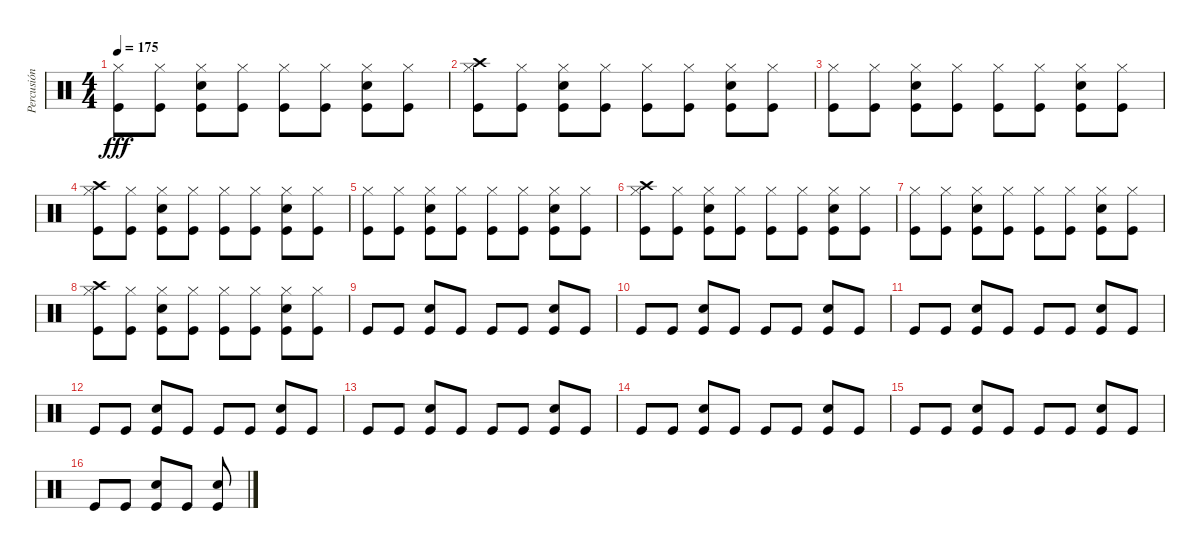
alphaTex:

\track ("Percusión" "Percusión") {instrument percussion}
\staff {score}
\articulation defaults
\ts (4 4)
\tempo 175
\clef neutral
\ks c
("Kick (hit)" "Hi-Hat (closed)").8{dy fff} ("Kick (hit)" "Hi-Hat (closed)").8 ("Snare (hit) 2" "Kick (hit)" "Hi-Hat (closed)").8 ("Kick (hit)" "Hi-Hat (closed)").8 ("Kick (hit)" "Hi-Hat (closed)").8 ("Kick (hit)" "Hi-Hat (closed)").8 ("Snare (hit) 2" "Kick (hit)" "Hi-Hat (closed)").8 ("Kick (hit)" "Hi-Hat (closed)").8 |
("Kick (hit)" "Crash high (hit)" "Hi-Hat (closed)").8 ("Kick (hit)" "Hi-Hat (closed)").8 ("Kick (hit)" "Snare (hit) 2" "Hi-Hat (closed)").8 ("Hi-Hat (closed)" "Kick (hit)").8 ("Kick (hit)" "Hi-Hat (closed)").8 ("Kick (hit)" "Hi-Hat (closed)").8 ("Snare (hit) 2" "Kick (hit)" "Hi-Hat (closed)").8 ("Kick (hit)" "Hi-Hat (closed)").8 |
("Kick (hit)" "Hi-Hat (closed)").8 ("Kick (hit)" "Hi-Hat (closed)").8 ("Snare (hit) 2" "Kick (hit)" "Hi-Hat (closed)").8 ("Kick (hit)" "Hi-Hat (closed)").8 ("Kick (hit)" "Hi-Hat (closed)").8 ("Kick (hit)" "Hi-Hat (closed)").8 ("Snare (hit) 2" "Kick (hit)" "Hi-Hat (closed)").8 ("Kick (hit)" "Hi-Hat (closed)").8 |
("Kick (hit)" "Crash high (hit)" "Hi-Hat (closed)").8 ("Kick (hit)" "Hi-Hat (closed)").8 ("Kick (hit)" "Snare (hit) 2" "Hi-Hat (closed)").8 ("Hi-Hat (closed)" "Kick (hit)").8 ("Kick (hit)" "Hi-Hat (closed)").8 ("Kick (hit)" "Hi-Hat (closed)").8 ("Snare (hit) 2" "Kick (hit)" "Hi-Hat (closed)").8 ("Kick (hit)" "Hi-Hat (closed)").8 |
("Kick (hit)" "Hi-Hat (closed)").8 ("Kick (hit)" "Hi-Hat (closed)").8 ("Snare (hit) 2" "Kick (hit)" "Hi-Hat (closed)").8 ("Kick (hit)" "Hi-Hat (closed)").8 ("Kick (hit)" "Hi-Hat (closed)").8 ("Kick (hit)" "Hi-Hat (closed)").8 ("Snare (hit) 2" "Kick (hit)" "Hi-Hat (closed)").8 ("Kick (hit)" "Hi-Hat (closed)").8 |
("Kick (hit)" "Crash high (hit)" "Hi-Hat (closed)").8 ("Kick (hit)" "Hi-Hat (closed)").8 ("Kick (hit)" "Snare (hit) 2" "Hi-Hat (closed)").8 ("Hi-Hat (closed)" "Kick (hit)").8 ("Kick (hit)" "Hi-Hat (closed)").8 ("Kick (hit)" "Hi-Hat (closed)").8 ("Snare (hit) 2" "Kick (hit)" "Hi-Hat (closed)").8 ("Kick (hit)" "Hi-Hat (closed)").8 |
("Kick (hit)" "Hi-Hat (closed)").8 ("Kick (hit)" "Hi-Hat (closed)").8 ("Snare (hit) 2" "Kick (hit)" "Hi-Hat (closed)").8 ("Kick (hit)" "Hi-Hat (closed)").8 ("Kick (hit)" "Hi-Hat (closed)").8 ("Kick (hit)" "Hi-Hat (closed)").8 ("Snare (hit) 2" "Kick (hit)" "Hi-Hat (closed)").8 ("Kick (hit)" "Hi-Hat (closed)").8 |
("Kick (hit)" "Crash high (hit)" "Hi-Hat (closed)").8 ("Kick (hit)" "Hi-Hat (closed)").8 ("Kick (hit)" "Snare (hit) 2" "Hi-Hat (closed)").8 ("Hi-Hat (closed)" "Kick (hit)").8 ("Kick (hit)" "Hi-Hat (closed)").8 ("Kick (hit)" "Hi-Hat (closed)").8 ("Snare (hit) 2" "Kick (hit)" "Hi-Hat (closed)").8 ("Kick (hit)" "Hi-Hat (closed)").8 |
"Kick (hit)".8 "Kick (hit)".8 ("Snare (hit) 2" "Kick (hit)").8 "Kick (hit)".8 "Kick (hit)".8 "Kick (hit)".8 ("Snare (hit) 2" "Kick (hit)").8 "Kick (hit)".8 |
"Kick (hit)".8 "Kick (hit)".8 ("Snare (hit) 2" "Kick (hit)").8 "Kick (hit)".8 "Kick (hit)".8 "Kick (hit)".8 ("Snare (hit) 2" "Kick (hit)").8 "Kick (hit)".8 |
"Kick (hit)".8 "Kick (hit)".8 ("Snare (hit) 2" "Kick (hit)").8 "Kick (hit)".8 "Kick (hit)".8 "Kick (hit)".8 ("Snare (hit) 2" "Kick (hit)").8 "Kick (hit)".8 |
"Kick (hit)".8 "Kick (hit)".8 ("Snare (hit) 2" "Kick (hit)").8 "Kick (hit)".8 "Kick (hit)".8 "Kick (hit)".8 ("Snare (hit) 2" "Kick (hit)").8 "Kick (hit)".8 |
"Kick (hit)".8 "Kick (hit)".8 ("Snare (hit) 2" "Kick (hit)").8 "Kick (hit)".8 "Kick (hit)".8 "Kick (hit)".8 ("Snare (hit) 2" "Kick (hit)").8 "Kick (hit)".8 |
"Kick (hit)".8 "Kick (hit)".8 ("Snare (hit) 2" "Kick (hit)").8 "Kick (hit)".8 "Kick (hit)".8 "Kick (hit)".8 ("Snare (hit) 2" "Kick (hit)").8 "Kick (hit)".8 |
"Kick (hit)".8 "Kick (hit)".8 ("Snare (hit) 2" "Kick (hit)").8 "Kick (hit)".8 "Kick (hit)".8 "Kick (hit)".8 ("Snare (hit) 2" "Kick (hit)").8 "Kick (hit)".8 |
"Kick (hit)".8 "Kick (hit)".8 ("Snare (hit) 2" "Kick (hit)").8 "Kick (hit)".8 ("Kick (hit)" "Snare (hit) 2").8
